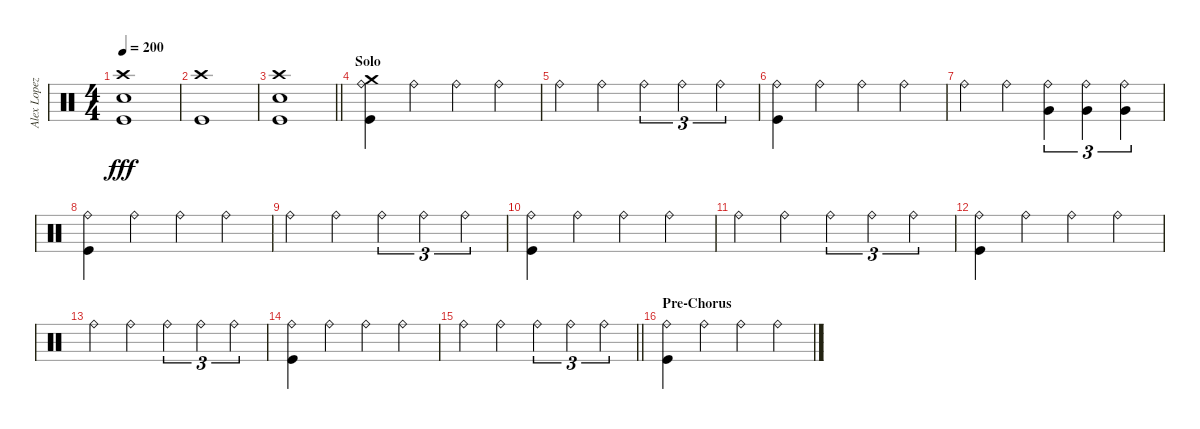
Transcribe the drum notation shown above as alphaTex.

\track ("Alex Lopez" "Alex Lopez") {instrument percussion}
\staff {score}
\articulation defaults
\ts (4 4)
\tempo 200
\clef neutral
\ks c
("Crash high (hit)" "Snare (hit) 2" "Kick (hit)").1{dy fff} |
("Crash high (hit)" "Kick (hit)").1 |
\barLineRight lightlight
("Crash high (hit)" "Snare (hit) 2" "Kick (hit)").1 |
\section ("" "Solo")
("Crash medium (hit)" "Ride (bell)" "Kick (hit)").4 "Ride (bell)".4 "Ride (bell)".4 "Ride (bell)".4 |
"Ride (bell)".4 "Ride (bell)".4 "Ride (bell)".4{tu (3 2)} "Ride (bell)".4{tu (3 2)} "Ride (bell)".4{tu (3 2)} |
("Ride (bell)" "Kick (hit)").4 "Ride (bell)".4 "Ride (bell)".4 "Ride (bell)".4 |
"Ride (bell)".4 "Ride (bell)".4 ("Ride (bell)" "Very Low Tom (hit)").4{tu (3 2)} ("Ride (bell)" "Very Low Tom (hit)").4{tu (3 2)} ("Ride (bell)" "Very Low Tom (hit)").4{tu (3 2)} |
("Ride (bell)" "Kick (hit)").4 "Ride (bell)".4 "Ride (bell)".4 "Ride (bell)".4 |
"Ride (bell)".4 "Ride (bell)".4 "Ride (bell)".4{tu (3 2)} "Ride (bell)".4{tu (3 2)} "Ride (bell)".4{tu (3 2)} |
("Ride (bell)" "Kick (hit)").4 "Ride (bell)".4 "Ride (bell)".4 "Ride (bell)".4 |
"Ride (bell)".4 "Ride (bell)".4 "Ride (bell)".4{tu (3 2)} "Ride (bell)".4{tu (3 2)} "Ride (bell)".4{tu (3 2)} |
("Ride (bell)" "Kick (hit)").4 "Ride (bell)".4 "Ride (bell)".4 "Ride (bell)".4 |
"Ride (bell)".4 "Ride (bell)".4 "Ride (bell)".4{tu (3 2)} "Ride (bell)".4{tu (3 2)} "Ride (bell)".4{tu (3 2)} |
("Ride (bell)" "Kick (hit)").4 "Ride (bell)".4 "Ride (bell)".4 "Ride (bell)".4 |
\barLineRight lightlight "Ride (bell)".4 "Ride (bell)".4 "Ride (bell)".4{tu (3 2)} "Ride (bell)".4{tu (3 2)} "Ride (bell)".4{tu (3 2)}
|
\section ("" "Pre-Chorus")
("Ride (bell)" "Kick (hit)").4 "Ride (bell)".4 "Ride (bell)".4 "Ride (bell)".4
